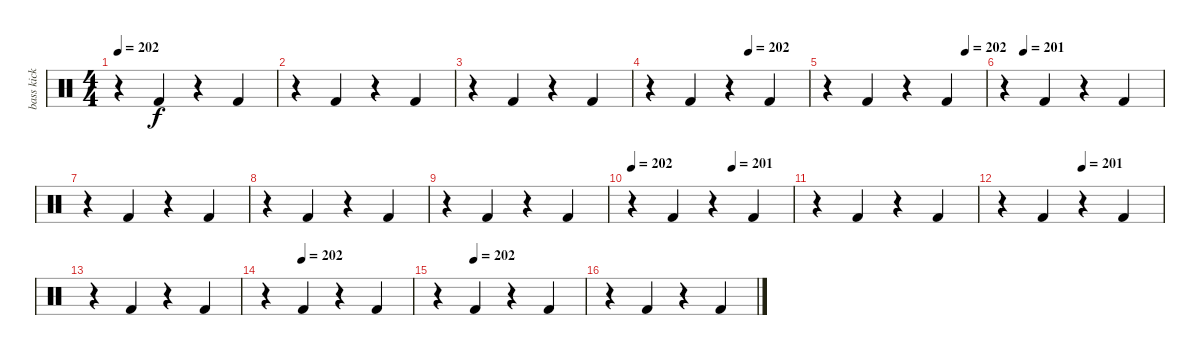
\track ("bass kick" "bass kick") {instrument percussion}
\staff {score}
\articulation defaults
\ts (4 4)
\tempo 202
\clef neutral
\ks c
r.4{dy f} "Kick (hit) 2".4 r.4 "Kick (hit) 2".4 |
r.4 "Kick (hit) 2".4 r.4 "Kick (hit) 2".4 |
r.4 "Kick (hit) 2".4 r.4 "Kick (hit) 2".4 |
\tempo (202 0.625)
r.4 "Kick (hit) 2".4 r.4 "Kick (hit) 2".4 |
\tempo (202 0.875)
r.4 "Kick (hit) 2".4 r.4 "Kick (hit) 2".4 |
\tempo (201 0.125)
r.4 "Kick (hit) 2".4 r.4 "Kick (hit) 2".4 |
r.4 "Kick (hit) 2".4 r.4 "Kick (hit) 2".4 |
r.4 "Kick (hit) 2".4 r.4 "Kick (hit) 2".4 |
r.4 "Kick (hit) 2".4 r.4 "Kick (hit) 2".4 |
\tempo 202
\tempo (201 0.625)
r.4 "Kick (hit) 2".4 r.4 "Kick (hit) 2".4 |
r.4 "Kick (hit) 2".4 r.4 "Kick (hit) 2".4 |
\tempo (201 0.5)
r.4 "Kick (hit) 2".4 r.4 "Kick (hit) 2".4 |
r.4 "Kick (hit) 2".4 r.4 "Kick (hit) 2".4 |
\tempo (202 0.25)
r.4 "Kick (hit) 2".4 r.4 "Kick (hit) 2".4 |
\tempo (202 0.25)
r.4 "Kick (hit) 2".4 r.4 "Kick (hit) 2".4 |
r.4 "Kick (hit) 2".4 r.4 "Kick (hit) 2".4
